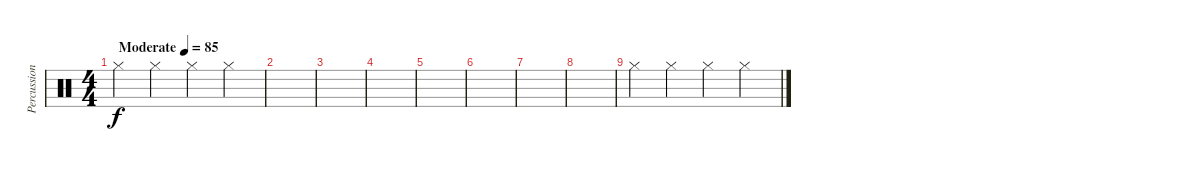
\track ("Percussion" "Percussion") {instrument percussion}
\staff {score}
\articulation defaults
\ts (4 4)
\tempo (85 "Moderate")
\clef neutral
\ks c "Hi-Hat (closed)".4{dy f} "Hi-Hat (closed)".4 "Hi-Hat (closed)".4 "Hi-Hat (closed)".4
|
|
|
|
|
|
|
|
"Hi-Hat (closed)".4 "Hi-Hat (closed)".4 "Hi-Hat (closed)".4 "Hi-Hat (closed)".4
